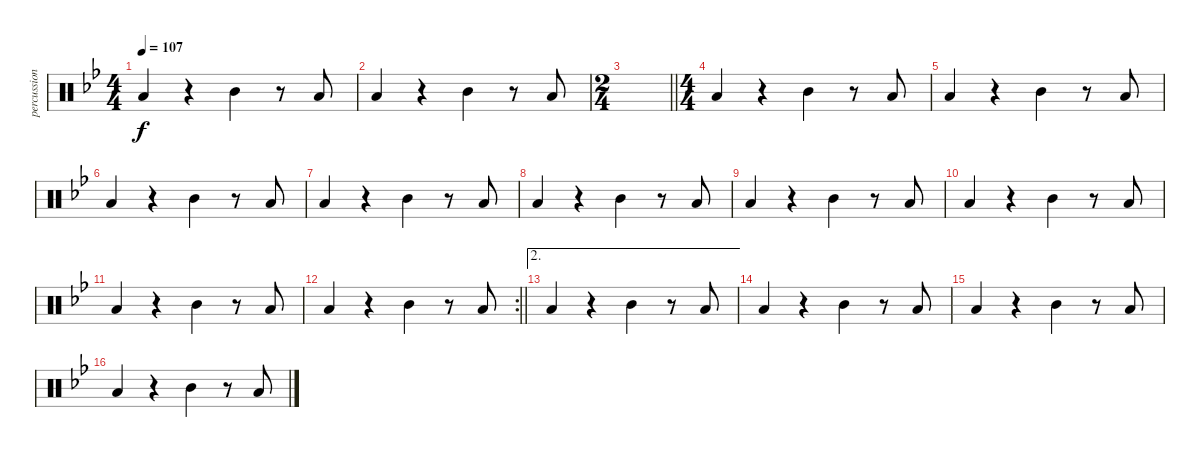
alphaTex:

\track ("percussions" "percussion") {instrument percussion}
\staff {score}
\articulation defaults
\ts (4 4)
\tempo 107
\clef neutral
\ks bb "Low Floor Tom (hit)".4{dy f}
r.4 "Mid Tom (hit)".4 r.8 "Low Floor Tom (hit)".8 |
"Low Floor Tom (hit)".4 r.4 "Mid Tom (hit)".4 r.8 "Low Floor Tom (hit)".8 |
\ts (2 4)
\barLineRight lightlight
|
\ts (4 4)
"Low Floor Tom (hit)".4 r.4 "Mid Tom (hit)".4 r.8 "Low Floor Tom (hit)".8 |
"Low Floor Tom (hit)".4 r.4 "Mid Tom (hit)".4 r.8 "Low Floor Tom (hit)".8 |
"Low Floor Tom (hit)".4 r.4 "Mid Tom (hit)".4 r.8 "Low Floor Tom (hit)".8 |
"Low Floor Tom (hit)".4 r.4 "Mid Tom (hit)".4 r.8 "Low Floor Tom (hit)".8 |
"Low Floor Tom (hit)".4 r.4 "Mid Tom (hit)".4 r.8 "Low Floor Tom (hit)".8 |
"Low Floor Tom (hit)".4 r.4 "Mid Tom (hit)".4 r.8 "Low Floor Tom (hit)".8 |
"Low Floor Tom (hit)".4 r.4 "Mid Tom (hit)".4 r.8 "Low Floor Tom (hit)".8 |
"Low Floor Tom (hit)".4 r.4 "Mid Tom (hit)".4 r.8 "Low Floor Tom (hit)".8 |
\rc 2
\barLineRight lightlight "Low Floor Tom (hit)".4
r.4 "Mid Tom (hit)".4 r.8 "Low Floor Tom (hit)".8 |
\ae 2 "Low Floor Tom (hit)".4
r.4 "Mid Tom (hit)".4 r.8 "Low Floor Tom (hit)".8 |
"Low Floor Tom (hit)".4 r.4 "Mid Tom (hit)".4 r.8 "Low Floor Tom (hit)".8 |
"Low Floor Tom (hit)".4 r.4 "Mid Tom (hit)".4 r.8 "Low Floor Tom (hit)".8 |
"Low Floor Tom (hit)".4 r.4 "Mid Tom (hit)".4 r.8 "Low Floor Tom (hit)".8
